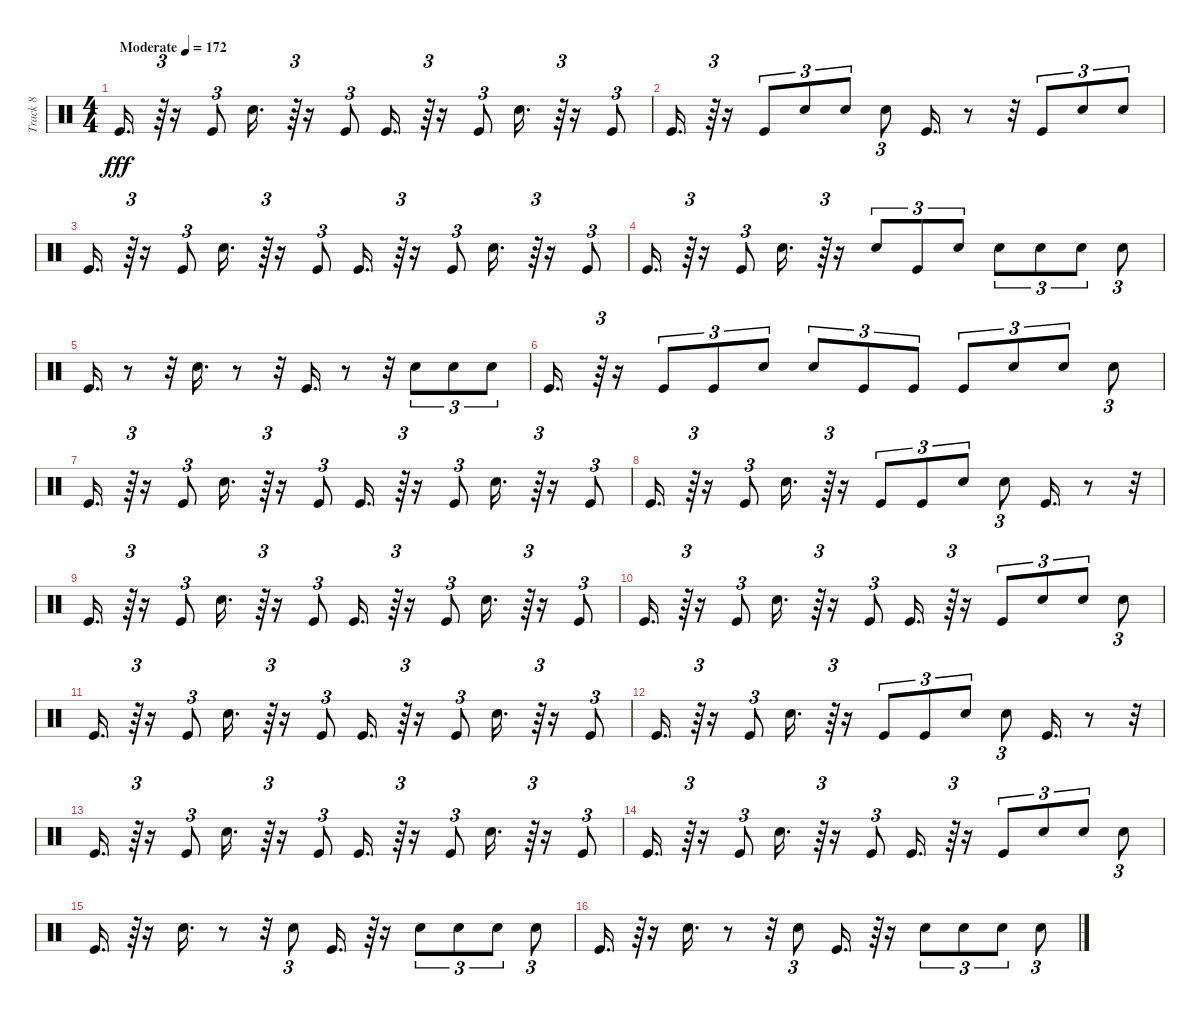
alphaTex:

\track ("Track 8" "Track 8") {instrument percussion}
\staff {score}
\articulation defaults
\ts (4 4)
\tempo (172 "Moderate")
\clef neutral
\ks c "Kick (hit)".16{d dy fff}
r.64{tu (3 2)} r.16 "Kick (hit)".8{tu (3 2)} "Snare (hit) 2".16{d} r.64{tu (3 2)} r.16 "Kick (hit)".8{tu (3 2)} "Kick (hit)".16{d} r.64{tu (3 2)} r.16 "Kick (hit)".8{tu (3 2)} "Snare (hit) 2".16{d} r.64{tu (3 2)} r.16 "Kick (hit)".8{tu (3 2)} |
"Kick (hit)".16{d} r.64{tu (3 2)} r.16 "Kick (hit)".8{tu (3 2)} "Snare (hit) 2".8{tu (3 2)} "Snare (hit) 2".8{tu (3 2)} "Snare (hit) 2".8{tu (3 2)} "Kick (hit)".16{d} r.8 r.32 "Kick (hit)".8{tu (3 2)} "Snare (hit) 2".8{tu (3 2)} "Snare (hit) 2".8{tu (3 2)} |
"Kick (hit)".16{d} r.64{tu (3 2)} r.16 "Kick (hit)".8{tu (3 2)} "Snare (hit) 2".16{d} r.64{tu (3 2)} r.16 "Kick (hit)".8{tu (3 2)} "Kick (hit)".16{d} r.64{tu (3 2)} r.16 "Kick (hit)".8{tu (3 2)} "Snare (hit) 2".16{d} r.64{tu (3 2)} r.16 "Kick (hit)".8{tu (3 2)} |
"Kick (hit)".16{d} r.64{tu (3 2)} r.16 "Kick (hit)".8{tu (3 2)} "Snare (hit) 2".16{d} r.64{tu (3 2)} r.16 "Snare (hit) 2".8{tu (3 2)} "Kick (hit)".8{tu (3 2)} "Snare (hit) 2".8{tu (3 2)} "Snare (hit) 2".8{tu (3 2)} "Snare (hit) 2".8{tu (3 2)} "Snare (hit) 2".8{tu (3 2)} "Snare (hit) 2".8{tu (3 2)} |
"Kick (hit)".16{d} r.8 r.32 "Snare (hit) 2".16{d} r.8 r.32 "Kick (hit)".16{d} r.8 r.32 "Snare (hit) 2".8{tu (3 2)} "Snare (hit) 2".8{tu (3 2)} "Snare (hit) 2".8{tu (3 2)} |
"Kick (hit)".16{d} r.64{tu (3 2)} r.16 "Kick (hit)".8{tu (3 2)} "Kick (hit)".8{tu (3 2)} "Snare (hit) 2".8{tu (3 2)} "Snare (hit) 2".8{tu (3 2)} "Kick (hit)".8{tu (3 2)} "Kick (hit)".8{tu (3 2)} "Kick (hit)".8{tu (3 2)} "Snare (hit) 2".8{tu (3 2)} "Snare (hit) 2".8{tu (3 2)} "Snare (hit) 2".8{tu (3 2)} |
"Kick (hit)".16{d} r.64{tu (3 2)} r.16 "Kick (hit)".8{tu (3 2)} "Snare (hit) 2".16{d} r.64{tu (3 2)} r.16 "Kick (hit)".8{tu (3 2)} "Kick (hit)".16{d} r.64{tu (3 2)} r.16 "Kick (hit)".8{tu (3 2)} "Snare (hit) 2".16{d} r.64{tu (3 2)} r.16 "Kick (hit)".8{tu (3 2)} |
"Kick (hit)".16{d} r.64{tu (3 2)} r.16 "Kick (hit)".8{tu (3 2)} "Snare (hit) 2".16{d} r.64{tu (3 2)} r.16 "Kick (hit)".8{tu (3 2)} "Kick (hit)".8{tu (3 2)} "Snare (hit) 2".8{tu (3 2)} "Snare (hit) 2".8{tu (3 2)} "Kick (hit)".16{d} r.8 r.32 |
"Kick (hit)".16{d} r.64{tu (3 2)} r.16 "Kick (hit)".8{tu (3 2)} "Snare (hit) 2".16{d} r.64{tu (3 2)} r.16 "Kick (hit)".8{tu (3 2)} "Kick (hit)".16{d} r.64{tu (3 2)} r.16 "Kick (hit)".8{tu (3 2)} "Snare (hit) 2".16{d} r.64{tu (3 2)} r.16 "Kick (hit)".8{tu (3 2)} |
"Kick (hit)".16{d} r.64{tu (3 2)} r.16 "Kick (hit)".8{tu (3 2)} "Snare (hit) 2".16{d} r.64{tu (3 2)} r.16 "Kick (hit)".8{tu (3 2)} "Kick (hit)".16{d} r.64{tu (3 2)} r.16 "Kick (hit)".8{tu (3 2)} "Snare (hit) 2".8{tu (3 2)} "Snare (hit) 2".8{tu (3 2)} "Snare (hit) 2".8{tu (3 2)} |
"Kick (hit)".16{d} r.64{tu (3 2)} r.16 "Kick (hit)".8{tu (3 2)} "Snare (hit) 2".16{d} r.64{tu (3 2)} r.16 "Kick (hit)".8{tu (3 2)} "Kick (hit)".16{d} r.64{tu (3 2)} r.16 "Kick (hit)".8{tu (3 2)} "Snare (hit) 2".16{d} r.64{tu (3 2)} r.16 "Kick (hit)".8{tu (3 2)} |
"Kick (hit)".16{d} r.64{tu (3 2)} r.16 "Kick (hit)".8{tu (3 2)} "Snare (hit) 2".16{d} r.64{tu (3 2)} r.16 "Kick (hit)".8{tu (3 2)} "Kick (hit)".8{tu (3 2)} "Snare (hit) 2".8{tu (3 2)} "Snare (hit) 2".8{tu (3 2)} "Kick (hit)".16{d} r.8 r.32 |
"Kick (hit)".16{d} r.64{tu (3 2)} r.16 "Kick (hit)".8{tu (3 2)} "Snare (hit) 2".16{d} r.64{tu (3 2)} r.16 "Kick (hit)".8{tu (3 2)} "Kick (hit)".16{d} r.64{tu (3 2)} r.16 "Kick (hit)".8{tu (3 2)} "Snare (hit) 2".16{d} r.64{tu (3 2)} r.16 "Kick (hit)".8{tu (3 2)} |
"Kick (hit)".16{d} r.64{tu (3 2)} r.16 "Kick (hit)".8{tu (3 2)} "Snare (hit) 2".16{d} r.64{tu (3 2)} r.16 "Kick (hit)".8{tu (3 2)} "Kick (hit)".16{d} r.64{tu (3 2)} r.16 "Kick (hit)".8{tu (3 2)} "Snare (hit) 2".8{tu (3 2)} "Snare (hit) 2".8{tu (3 2)} "Snare (hit) 2".8{tu (3 2)} |
"Kick (hit)".16{d} r.64{tu (3 2)} r.16 "Snare (hit) 2".16{d} r.8 r.32 "Snare (hit) 2".8{tu (3 2)} "Kick (hit)".16{d} r.64{tu (3 2)} r.16 "Snare (hit) 2".8{tu (3 2)} "Snare (hit) 2".8{tu (3 2)} "Snare (hit) 2".8{tu (3 2)} "Snare (hit) 2".8{tu (3 2)} |
"Kick (hit)".16{d} r.64{tu (3 2)} r.16 "Snare (hit) 2".16{d} r.8 r.32 "Snare (hit) 2".8{tu (3 2)} "Kick (hit)".16{d} r.64{tu (3 2)} r.16 "Snare (hit) 2".8{tu (3 2)} "Snare (hit) 2".8{tu (3 2)} "Snare (hit) 2".8{tu (3 2)} "Snare (hit) 2".8{tu (3 2)}
